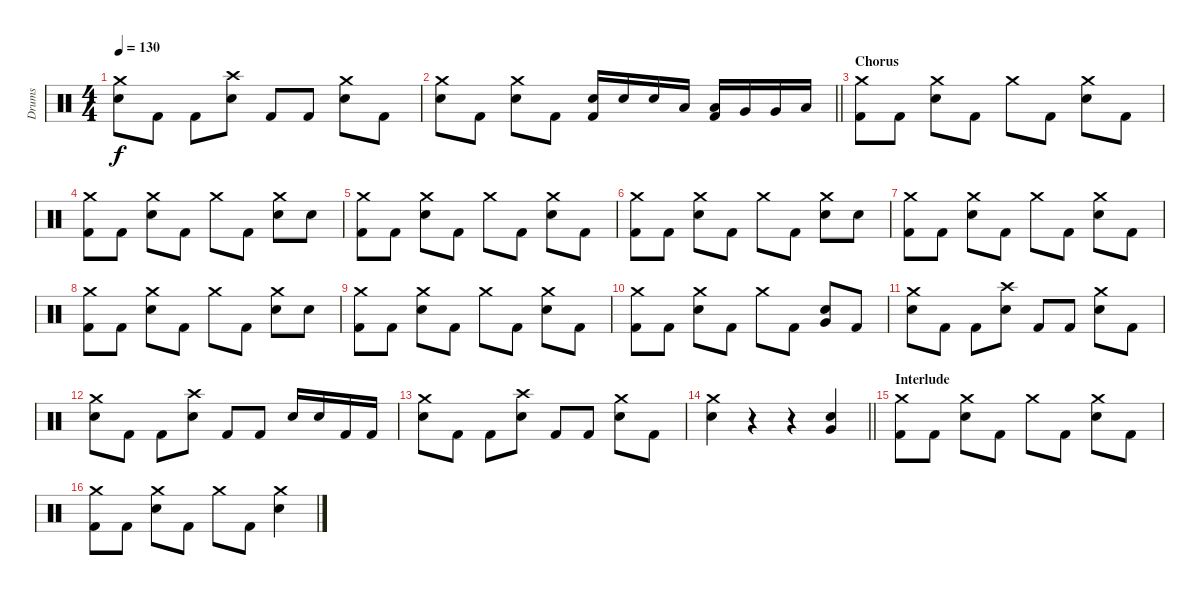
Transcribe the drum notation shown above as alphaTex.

\track ("Drums" "Drums") {instrument percussion}
\staff {score}
\articulation defaults
\ts (4 4)
\tempo 130
\clef neutral
\ks c
("Crash medium (hit)" "Electric Snare (hit)").8{dy f} "Kick (hit) 2".8 "Kick (hit) 2".8 ("Crash high (hit)" "Electric Snare (hit)").8 "Kick (hit) 2".8 "Kick (hit) 2".8 ("Crash medium (hit)" "Electric Snare (hit)").8 "Kick (hit) 2".8 |
\barLineRight lightlight
("Crash medium (hit)" "Electric Snare (hit)").8 "Kick (hit) 2".8 ("Crash medium (hit)" "Electric Snare (hit)").8 "Kick (hit) 2".8 ("Electric Snare (hit)" "Kick (hit) 2").16 "Electric Snare (hit)".16 "Electric Snare (hit)".16 "Low Tom (hit)".16 ("Low Tom (hit)" "Kick (hit) 2").16 "Very Low Tom (hit)".16 "Very Low Tom (hit)".16 "Low Floor Tom (hit)".16 |
\section ("" "Chorus")
("Crash medium (hit)" "Kick (hit) 2").8 "Kick (hit) 2".8 ("Crash medium (hit)" "Electric Snare (hit)").8 "Kick (hit) 2".8 "Crash medium (hit)".8 "Kick (hit) 2".8 ("Crash medium (hit)" "Electric Snare (hit)").8 "Kick (hit) 2".8 |
("Crash medium (hit)" "Kick (hit) 2").8 "Kick (hit) 2".8 ("Crash medium (hit)" "Electric Snare (hit)").8 "Kick (hit) 2".8 "Crash medium (hit)".8 "Kick (hit) 2".8 ("Crash medium (hit)" "Electric Snare (hit)").8 "Electric Snare (hit)".8 |
("Crash medium (hit)" "Kick (hit) 2").8 "Kick (hit) 2".8 ("Crash medium (hit)" "Electric Snare (hit)").8 "Kick (hit) 2".8 "Crash medium (hit)".8 "Kick (hit) 2".8 ("Crash medium (hit)" "Electric Snare (hit)").8 "Kick (hit) 2".8 |
("Crash medium (hit)" "Kick (hit) 2").8 "Kick (hit) 2".8 ("Crash medium (hit)" "Electric Snare (hit)").8 "Kick (hit) 2".8 "Crash medium (hit)".8 "Kick (hit) 2".8 ("Crash medium (hit)" "Electric Snare (hit)").8 "Electric Snare (hit)".8 |
("Crash medium (hit)" "Kick (hit) 2").8 "Kick (hit) 2".8 ("Crash medium (hit)" "Electric Snare (hit)").8 "Kick (hit) 2".8 "Crash medium (hit)".8 "Kick (hit) 2".8 ("Crash medium (hit)" "Electric Snare (hit)").8 "Kick (hit) 2".8 |
("Crash medium (hit)" "Kick (hit) 2").8 "Kick (hit) 2".8 ("Crash medium (hit)" "Electric Snare (hit)").8 "Kick (hit) 2".8 "Crash medium (hit)".8 "Kick (hit) 2".8 ("Crash medium (hit)" "Electric Snare (hit)").8 "Electric Snare (hit)".8 |
("Crash medium (hit)" "Kick (hit) 2").8 "Kick (hit) 2".8 ("Crash medium (hit)" "Electric Snare (hit)").8 "Kick (hit) 2".8 "Crash medium (hit)".8 "Kick (hit) 2".8 ("Crash medium (hit)" "Electric Snare (hit)").8 "Kick (hit) 2".8 |
("Crash medium (hit)" "Kick (hit) 2").8 "Kick (hit) 2".8 ("Crash medium (hit)" "Electric Snare (hit)").8 "Kick (hit) 2".8 "Crash medium (hit)".8 "Kick (hit) 2".8 ("Very Low Tom (hit)" "Electric Snare (hit)").8 "Kick (hit) 2".8 |
("Crash medium (hit)" "Electric Snare (hit)").8 "Kick (hit) 2".8 "Kick (hit) 2".8 ("Crash high (hit)" "Electric Snare (hit)").8 "Kick (hit) 2".8 "Kick (hit) 2".8 ("Crash medium (hit)" "Electric Snare (hit)").8 "Kick (hit) 2".8 |
("Crash medium (hit)" "Electric Snare (hit)").8 "Kick (hit) 2".8 "Kick (hit) 2".8 ("Crash high (hit)" "Electric Snare (hit)").8 "Kick (hit) 2".8 "Kick (hit) 2".8 "Electric Snare (hit)".16 "Electric Snare (hit)".16 "Kick (hit) 2".16 "Kick (hit) 2".16 |
("Crash medium (hit)" "Electric Snare (hit)").8 "Kick (hit) 2".8 "Kick (hit) 2".8 ("Crash high (hit)" "Electric Snare (hit)").8 "Kick (hit) 2".8 "Kick (hit) 2".8 ("Crash medium (hit)" "Electric Snare (hit)").8 "Kick (hit) 2".8 |
\barLineRight lightlight
("Crash medium (hit)" "Electric Snare (hit)").4 r.4 r.4 ("Electric Snare (hit)" "Very Low Tom (hit)").4 |
\section ("" "Interlude")
("Crash medium (hit)" "Kick (hit) 2").8 "Kick (hit) 2".8 ("Crash medium (hit)" "Electric Snare (hit)").8 "Kick (hit) 2".8 "Crash medium (hit)".8 "Kick (hit) 2".8 ("Crash medium (hit)" "Electric Snare (hit)").8 "Kick (hit) 2".8 |
("Crash medium (hit)" "Kick (hit) 2").8 "Kick (hit) 2".8 ("Crash medium (hit)" "Electric Snare (hit)").8 "Kick (hit) 2".8 "Crash medium (hit)".8 "Kick (hit) 2".8 ("Crash medium (hit)" "Electric Snare (hit)").4
